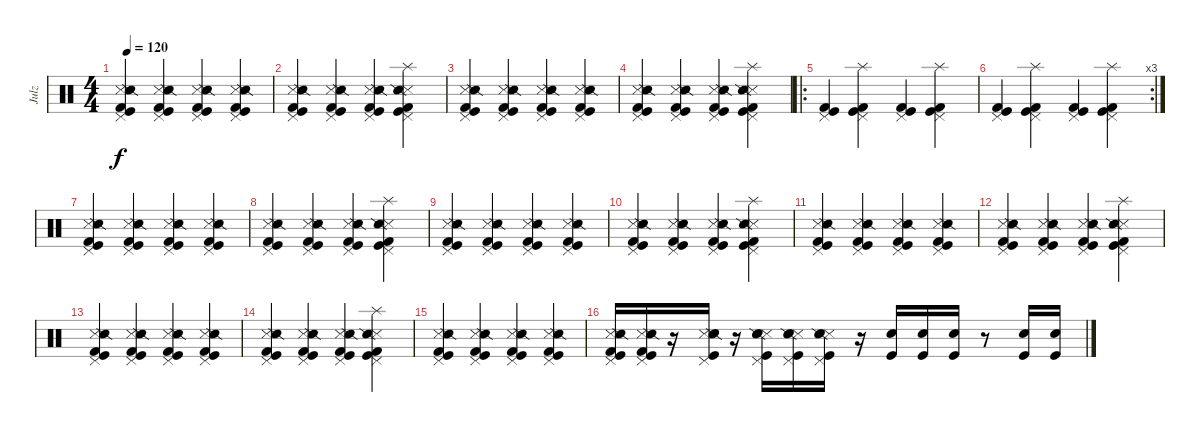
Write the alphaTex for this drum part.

\track ("Julz" "Julz") {instrument percussion}
\staff {score}
\articulation defaults
\ts (4 4)
\tempo 120
\clef neutral
\ks c
("Metronome (hit)" "Snare (side stick) 2" "Pedal Hi-Hat (hit)" "Kick (hit)" "Kick (hit) 2").4{dy f} ("Metronome (hit)" "Snare (side stick) 2" "Pedal Hi-Hat (hit)" "Kick (hit)" "Kick (hit) 2").4 ("Metronome (hit)" "Snare (side stick) 2" "Pedal Hi-Hat (hit)" "Kick (hit)" "Kick (hit) 2").4 ("Metronome (hit)" "Snare (side stick) 2" "Pedal Hi-Hat (hit)" "Kick (hit)" "Kick (hit) 2").4 |
("Metronome (hit)" "Snare (side stick) 2" "Pedal Hi-Hat (hit)" "Kick (hit)" "Kick (hit) 2").4 ("Metronome (hit)" "Snare (side stick) 2" "Pedal Hi-Hat (hit)" "Kick (hit)" "Kick (hit) 2").4 ("Metronome (hit)" "Snare (side stick) 2" "Pedal Hi-Hat (hit)" "Kick (hit)" "Kick (hit) 2").4 ("Splash (hit)" "Metronome (hit)" "Snare (side stick) 2" "Pedal Hi-Hat (hit)" "Kick (hit)" "Kick (hit) 2").4 |
("Metronome (hit)" "Snare (side stick) 2" "Pedal Hi-Hat (hit)" "Kick (hit)" "Kick (hit) 2").4 ("Metronome (hit)" "Snare (side stick) 2" "Pedal Hi-Hat (hit)" "Kick (hit)" "Kick (hit) 2").4 ("Metronome (hit)" "Snare (side stick) 2" "Pedal Hi-Hat (hit)" "Kick (hit)" "Kick (hit) 2").4 ("Metronome (hit)" "Snare (side stick) 2" "Pedal Hi-Hat (hit)" "Kick (hit)" "Kick (hit) 2").4 |
("Metronome (hit)" "Snare (side stick) 2" "Pedal Hi-Hat (hit)" "Kick (hit)" "Kick (hit) 2").4 ("Metronome (hit)" "Snare (side stick) 2" "Pedal Hi-Hat (hit)" "Kick (hit)" "Kick (hit) 2").4 ("Metronome (hit)" "Snare (side stick) 2" "Pedal Hi-Hat (hit)" "Kick (hit)" "Kick (hit) 2").4 ("Splash (hit)" "Metronome (hit)" "Snare (side stick) 2" "Pedal Hi-Hat (hit)" "Kick (hit)" "Kick (hit) 2").4 |
\ro
("Pedal Hi-Hat (hit)" "Kick (hit)" "Kick (hit) 2").4 ("Splash (hit)" "Pedal Hi-Hat (hit)" "Kick (hit)" "Kick (hit) 2").4 ("Pedal Hi-Hat (hit)" "Kick (hit)" "Kick (hit) 2").4 ("Splash (hit)" "Pedal Hi-Hat (hit)" "Kick (hit)" "Kick (hit) 2").4 |
\rc 3
("Pedal Hi-Hat (hit)" "Kick (hit)" "Kick (hit) 2").4 ("Splash (hit)" "Pedal Hi-Hat (hit)" "Kick (hit)" "Kick (hit) 2").4 ("Pedal Hi-Hat (hit)" "Kick (hit)" "Kick (hit) 2").4 ("Splash (hit)" "Pedal Hi-Hat (hit)" "Kick (hit)" "Kick (hit) 2").4 |
("Metronome (hit)" "Snare (side stick) 2" "Pedal Hi-Hat (hit)" "Kick (hit)" "Kick (hit) 2").4 ("Metronome (hit)" "Snare (side stick) 2" "Pedal Hi-Hat (hit)" "Kick (hit)" "Kick (hit) 2").4 ("Metronome (hit)" "Snare (side stick) 2" "Pedal Hi-Hat (hit)" "Kick (hit)" "Kick (hit) 2").4 ("Metronome (hit)" "Snare (side stick) 2" "Pedal Hi-Hat (hit)" "Kick (hit)" "Kick (hit) 2").4 |
("Metronome (hit)" "Snare (side stick) 2" "Pedal Hi-Hat (hit)" "Kick (hit)" "Kick (hit) 2").4 ("Metronome (hit)" "Snare (side stick) 2" "Pedal Hi-Hat (hit)" "Kick (hit)" "Kick (hit) 2").4 ("Metronome (hit)" "Snare (side stick) 2" "Pedal Hi-Hat (hit)" "Kick (hit)" "Kick (hit) 2").4 ("Splash (hit)" "Metronome (hit)" "Snare (side stick) 2" "Pedal Hi-Hat (hit)" "Kick (hit)" "Kick (hit) 2").4 |
("Metronome (hit)" "Snare (side stick) 2" "Pedal Hi-Hat (hit)" "Kick (hit)" "Kick (hit) 2").4 ("Metronome (hit)" "Snare (side stick) 2" "Pedal Hi-Hat (hit)" "Kick (hit)" "Kick (hit) 2").4 ("Metronome (hit)" "Snare (side stick) 2" "Pedal Hi-Hat (hit)" "Kick (hit)" "Kick (hit) 2").4 ("Metronome (hit)" "Snare (side stick) 2" "Pedal Hi-Hat (hit)" "Kick (hit)" "Kick (hit) 2").4 |
("Metronome (hit)" "Snare (side stick) 2" "Pedal Hi-Hat (hit)" "Kick (hit)" "Kick (hit) 2").4 ("Metronome (hit)" "Snare (side stick) 2" "Pedal Hi-Hat (hit)" "Kick (hit)" "Kick (hit) 2").4 ("Metronome (hit)" "Snare (side stick) 2" "Pedal Hi-Hat (hit)" "Kick (hit)" "Kick (hit) 2").4 ("Splash (hit)" "Metronome (hit)" "Snare (side stick) 2" "Pedal Hi-Hat (hit)" "Kick (hit)" "Kick (hit) 2").4 |
("Metronome (hit)" "Snare (side stick) 2" "Pedal Hi-Hat (hit)" "Kick (hit)" "Kick (hit) 2").4 ("Metronome (hit)" "Snare (side stick) 2" "Pedal Hi-Hat (hit)" "Kick (hit)" "Kick (hit) 2").4 ("Metronome (hit)" "Snare (side stick) 2" "Pedal Hi-Hat (hit)" "Kick (hit)" "Kick (hit) 2").4 ("Metronome (hit)" "Snare (side stick) 2" "Pedal Hi-Hat (hit)" "Kick (hit)" "Kick (hit) 2").4 |
("Metronome (hit)" "Snare (side stick) 2" "Pedal Hi-Hat (hit)" "Kick (hit)" "Kick (hit) 2").4 ("Metronome (hit)" "Snare (side stick) 2" "Pedal Hi-Hat (hit)" "Kick (hit)" "Kick (hit) 2").4 ("Metronome (hit)" "Snare (side stick) 2" "Pedal Hi-Hat (hit)" "Kick (hit)" "Kick (hit) 2").4 ("Splash (hit)" "Metronome (hit)" "Snare (side stick) 2" "Pedal Hi-Hat (hit)" "Kick (hit)" "Kick (hit) 2").4 |
("Metronome (hit)" "Snare (side stick) 2" "Pedal Hi-Hat (hit)" "Kick (hit)" "Kick (hit) 2").4 ("Metronome (hit)" "Snare (side stick) 2" "Pedal Hi-Hat (hit)" "Kick (hit)" "Kick (hit) 2").4 ("Metronome (hit)" "Snare (side stick) 2" "Pedal Hi-Hat (hit)" "Kick (hit)" "Kick (hit) 2").4 ("Metronome (hit)" "Snare (side stick) 2" "Pedal Hi-Hat (hit)" "Kick (hit)" "Kick (hit) 2").4 |
("Metronome (hit)" "Snare (side stick) 2" "Pedal Hi-Hat (hit)" "Kick (hit)" "Kick (hit) 2").4 ("Metronome (hit)" "Snare (side stick) 2" "Pedal Hi-Hat (hit)" "Kick (hit)" "Kick (hit) 2").4 ("Metronome (hit)" "Snare (side stick) 2" "Pedal Hi-Hat (hit)" "Kick (hit)" "Kick (hit) 2").4 ("Splash (hit)" "Metronome (hit)" "Snare (side stick) 2" "Pedal Hi-Hat (hit)" "Kick (hit)" "Kick (hit) 2").4 |
("Metronome (hit)" "Snare (side stick) 2" "Pedal Hi-Hat (hit)" "Kick (hit)" "Kick (hit) 2").4 ("Metronome (hit)" "Snare (side stick) 2" "Pedal Hi-Hat (hit)" "Kick (hit)" "Kick (hit) 2").4 ("Metronome (hit)" "Snare (side stick) 2" "Pedal Hi-Hat (hit)" "Kick (hit)" "Kick (hit) 2").4 ("Metronome (hit)" "Snare (side stick) 2" "Pedal Hi-Hat (hit)" "Kick (hit)" "Kick (hit) 2").4 |
("Metronome (hit)" "Snare (side stick) 2" "Pedal Hi-Hat (hit)" "Kick (hit)" "Kick (hit) 2").16 ("Metronome (hit)" "Snare (side stick) 2" "Pedal Hi-Hat (hit)" "Kick (hit)" "Kick (hit) 2").16 r.16 ("Metronome (hit)" "Snare (side stick) 2" "Pedal Hi-Hat (hit)" "Kick (hit)" "Hand Clap (hit)").16 r.16 ("Metronome (hit)" "Snare (side stick) 2" "Pedal Hi-Hat (hit)" "Kick (hit)" "Hand Clap (hit)").16 ("Metronome (hit)" "Snare (side stick) 2" "Pedal Hi-Hat (hit)" "Kick (hit)" "Hand Clap (hit)").16 ("Metronome (hit)" "Snare (side stick) 2" "Pedal Hi-Hat (hit)" "Kick (hit)" "Hand Clap (hit)").16 r.16 ("Kick (hit)" "Hand Clap (hit)").16 ("Kick (hit)" "Hand Clap (hit)").16 ("Kick (hit)" "Hand Clap (hit)").16 r.8 ("Kick (hit)" "Hand Clap (hit)").16 ("Kick (hit)" "Hand Clap (hit)").16
